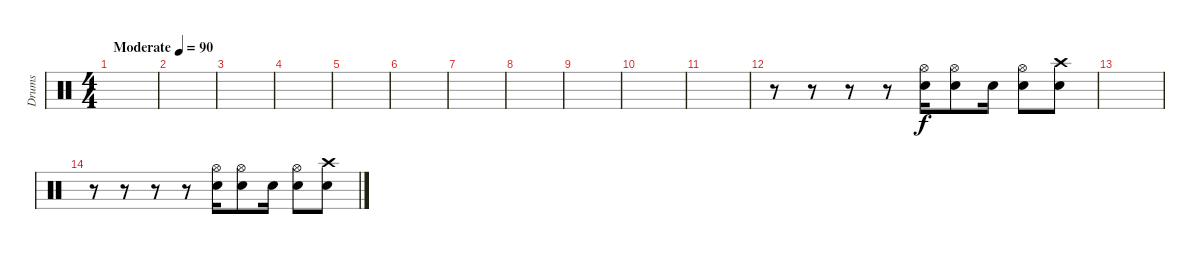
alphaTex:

\track ("Drums" "Drums") {instrument percussion}
\staff {score}
\articulation defaults
\ts (4 4)
\tempo (90 "Moderate")
\clef neutral
\ks c
|
|
|
|
|
|
|
|
|
|
|
r.8 r.8 r.8 r.8 ("Hi-Hat (open)" "Snare (hit) 2").16 ("Hi-Hat (open)" "Snare (hit) 2").8 "Snare (hit) 2".16 ("Hi-Hat (open)" "Snare (hit) 2").8 ("Crash high (hit)" "Snare (hit) 2").8 |
|
r.8 r.8 r.8 r.8 ("Hi-Hat (open)" "Snare (hit) 2").16 ("Hi-Hat (open)" "Snare (hit) 2").8 "Snare (hit) 2".16 ("Hi-Hat (open)" "Snare (hit) 2").8 ("Crash high (hit)" "Snare (hit) 2").8
